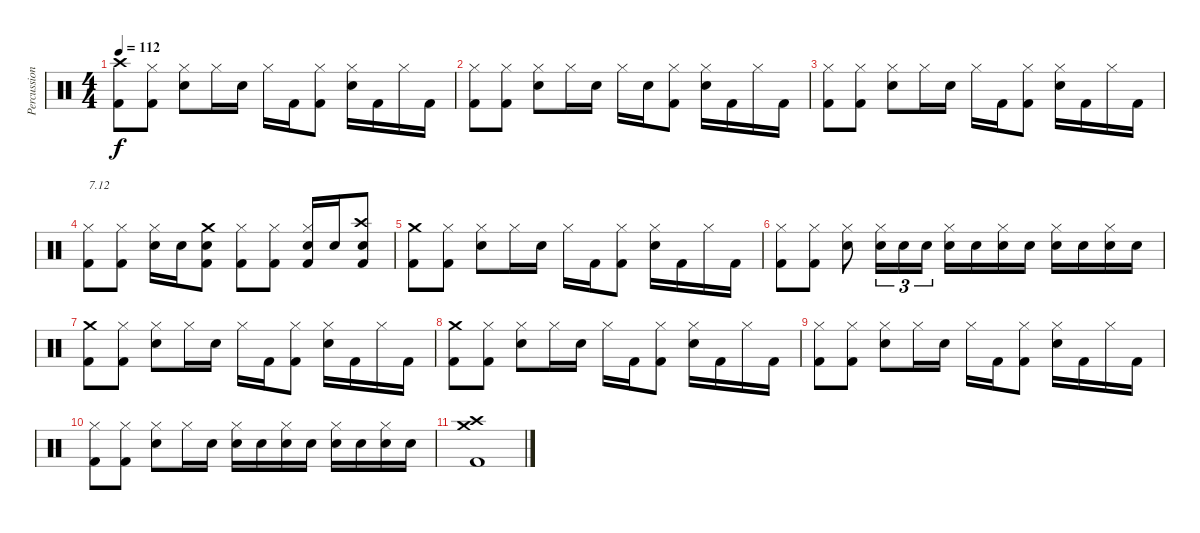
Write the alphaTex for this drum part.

\track ("Percussions" "Percussion") {instrument percussion}
\staff {score}
\articulation defaults
\ts (4 4)
\tempo 112
\clef neutral
\ks c
("Kick (hit) 2" "Crash high (hit)").8{dy f} ("Kick (hit) 2" "Hi-Hat (closed)").8 ("Snare (hit) 2" "Hi-Hat (closed)").8 "Hi-Hat (closed)".16 "Snare (hit) 2".16 "Hi-Hat (closed)".16 "Kick (hit) 2".16 ("Kick (hit) 2" "Hi-Hat (closed)").8 ("Snare (hit) 2" "Hi-Hat (closed)").16 "Kick (hit) 2".16 "Hi-Hat (closed)".16 "Kick (hit) 2".16 |
("Kick (hit) 2" "Hi-Hat (closed)").8 ("Kick (hit) 2" "Hi-Hat (closed)").8 ("Snare (hit) 2" "Hi-Hat (closed)").8 "Hi-Hat (closed)".16 "Snare (hit) 2".16 "Hi-Hat (closed)".16 "Snare (hit) 2".16 ("Kick (hit) 2" "Hi-Hat (closed)").8 ("Snare (hit) 2" "Hi-Hat (closed)").16 "Kick (hit) 2".16 "Hi-Hat (closed)".16 "Kick (hit) 2".16 |
("Kick (hit) 2" "Hi-Hat (closed)").8 ("Kick (hit) 2" "Hi-Hat (closed)").8 ("Snare (hit) 2" "Hi-Hat (closed)").8 "Hi-Hat (closed)".16 "Snare (hit) 2".16 "Hi-Hat (closed)".16 "Kick (hit) 2".16 ("Kick (hit) 2" "Hi-Hat (closed)").8 ("Snare (hit) 2" "Hi-Hat (closed)").16 "Kick (hit) 2".16 "Hi-Hat (closed)".16 "Kick (hit) 2".16 |
("Kick (hit) 2" "Hi-Hat (closed)").8{txt "7.12"} ("Kick (hit) 2" "Hi-Hat (closed)").8 ("Snare (hit) 2" "Hi-Hat (closed)").16 "Snare (hit) 2".16 ("Kick (hit) 2" "Snare (hit) 2" "Crash medium (hit)").8 ("Kick (hit) 2" "Hi-Hat (closed)").8 ("Kick (hit) 2" "Hi-Hat (closed)").8 ("Kick (hit) 2" "Snare (hit) 2" "Hi-Hat (closed)").16 "Snare (hit) 2".16 ("Kick (hit) 2" "Snare (hit) 2" "Crash high (hit)").8 |
("Kick (hit) 2" "Crash medium (hit)").8 ("Kick (hit) 2" "Hi-Hat (closed)").8 ("Snare (hit) 2" "Hi-Hat (closed)").8 "Hi-Hat (closed)".16 "Snare (hit) 2".16 "Hi-Hat (closed)".16 "Kick (hit) 2".16 ("Kick (hit) 2" "Hi-Hat (closed)").8 ("Snare (hit) 2" "Hi-Hat (closed)").16 "Kick (hit) 2".16 "Hi-Hat (closed)".16 "Kick (hit) 2".16 |
("Kick (hit) 2" "Hi-Hat (closed)").8 ("Kick (hit) 2" "Hi-Hat (closed)").8 ("Snare (hit) 2" "Hi-Hat (closed)").8 ("Snare (hit) 2" "Hi-Hat (closed)").16{tu (3 2)} "Snare (hit) 2".16{tu (3 2)} "Snare (hit) 2".16{tu (3 2)} ("Snare (hit) 2" "Hi-Hat (closed)").16 "Snare (hit) 2".16 ("Snare (hit) 2" "Hi-Hat (closed)").16 "Snare (hit) 2".16 ("Snare (hit) 2" "Hi-Hat (closed)").16 "Snare (hit) 2".16 ("Snare (hit) 2" "Hi-Hat (closed)").16 "Snare (hit) 2".16 |
("Kick (hit) 2" "Crash medium (hit)").8 ("Kick (hit) 2" "Hi-Hat (closed)").8 ("Snare (hit) 2" "Hi-Hat (closed)").8 "Hi-Hat (closed)".16 "Snare (hit) 2".16 "Hi-Hat (closed)".16 "Kick (hit) 2".16 ("Kick (hit) 2" "Hi-Hat (closed)").8 ("Snare (hit) 2" "Hi-Hat (closed)").16 "Kick (hit) 2".16 "Hi-Hat (closed)".16 "Kick (hit) 2".16 |
("Kick (hit) 2" "Crash medium (hit)").8 ("Kick (hit) 2" "Hi-Hat (closed)").8 ("Snare (hit) 2" "Hi-Hat (closed)").8 "Hi-Hat (closed)".16 "Snare (hit) 2".16 "Hi-Hat (closed)".16 "Kick (hit) 2".16 ("Kick (hit) 2" "Hi-Hat (closed)").8 ("Snare (hit) 2" "Hi-Hat (closed)").16 "Kick (hit) 2".16 "Hi-Hat (closed)".16 "Kick (hit) 2".16 |
("Kick (hit) 2" "Hi-Hat (closed)").8 ("Kick (hit) 2" "Hi-Hat (closed)").8 ("Snare (hit) 2" "Hi-Hat (closed)").8 "Hi-Hat (closed)".16 "Snare (hit) 2".16 "Hi-Hat (closed)".16 "Kick (hit) 2".16 ("Kick (hit) 2" "Hi-Hat (closed)").8 ("Snare (hit) 2" "Hi-Hat (closed)").16 "Kick (hit) 2".16 "Hi-Hat (closed)".16 "Kick (hit) 2".16 |
("Kick (hit) 2" "Hi-Hat (closed)").8 ("Kick (hit) 2" "Hi-Hat (closed)").8 ("Snare (hit) 2" "Hi-Hat (closed)").8 "Hi-Hat (closed)".16 "Snare (hit) 2".16 ("Snare (hit) 2" "Hi-Hat (closed)").16 "Snare (hit) 2".16 ("Snare (hit) 2" "Hi-Hat (closed)").16 "Snare (hit) 2".16 ("Snare (hit) 2" "Hi-Hat (closed)").16 "Snare (hit) 2".16 ("Snare (hit) 2" "Hi-Hat (closed)").16 "Snare (hit) 2".16 |
("Kick (hit) 2" "Crash medium (hit)" "Crash high (hit)").1
